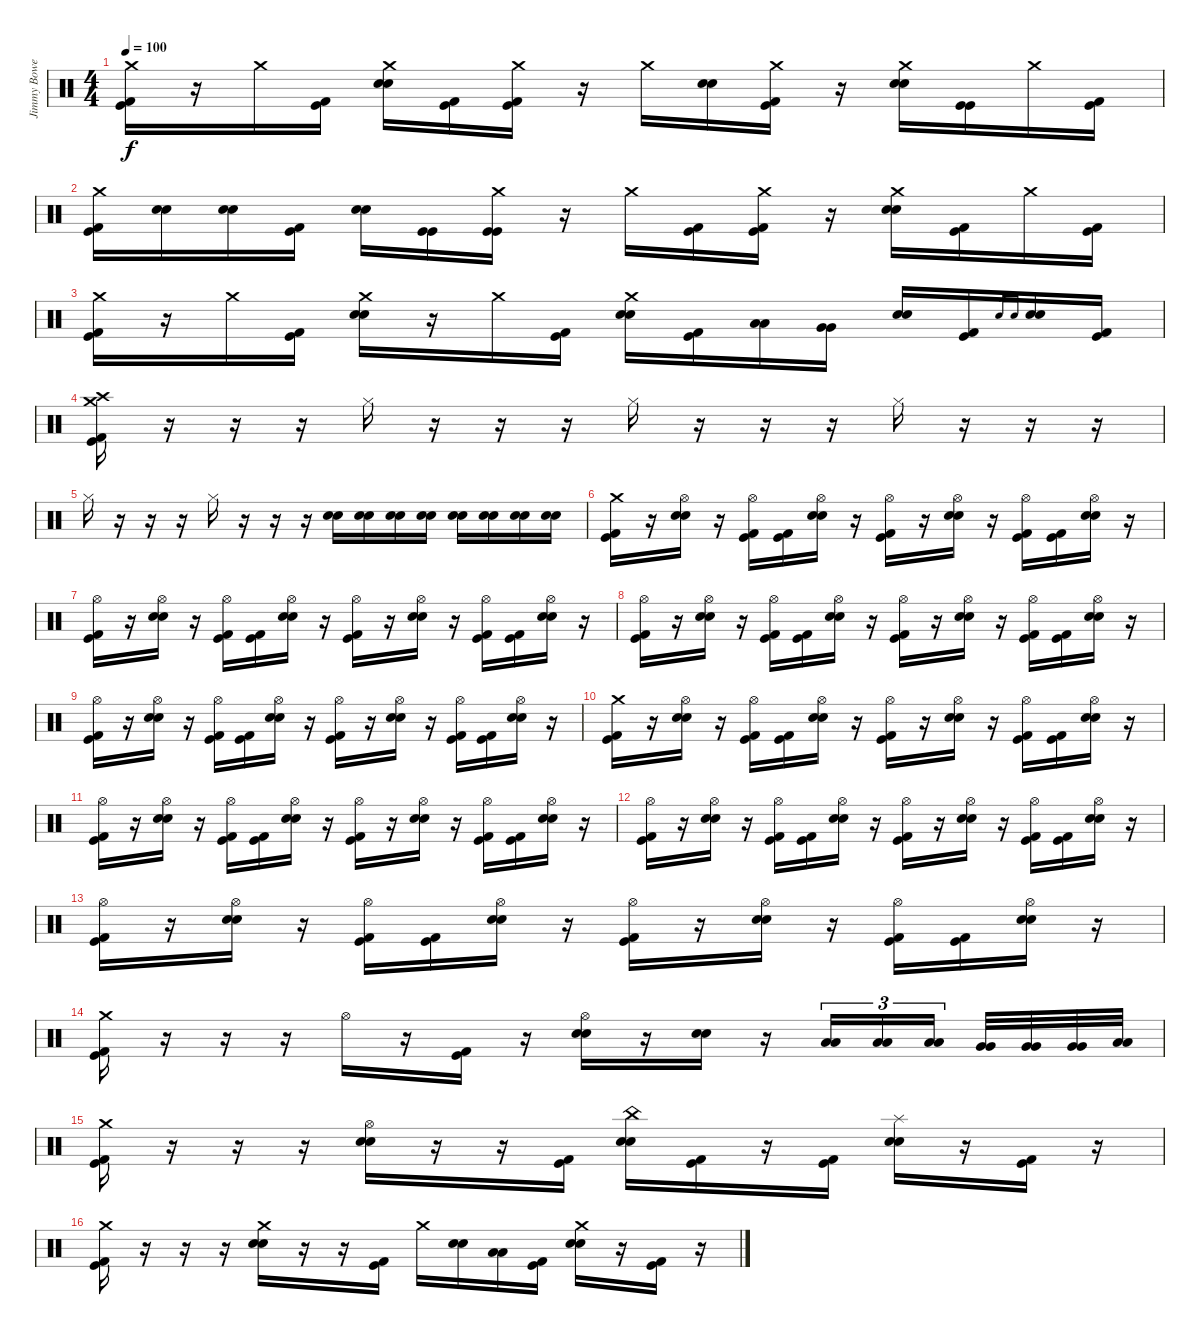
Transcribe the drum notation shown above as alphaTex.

\track ("Jimmy Bower" "Jimmy Bowe") {instrument percussion}
\staff {score}
\articulation defaults
\ts (4 4)
\tempo 100
\clef neutral
\ks c
("Crash medium (hit)" "Kick (hit) 2" "Kick (hit)").16{dy f} r.16 "Crash medium (hit)".16 ("Kick (hit) 2" "Kick (hit)").16 ("Crash medium (hit)" "Electric Snare (hit)" "Electric Snare (hit)").16 ("Kick (hit) 2" "Kick (hit)").16 ("Crash medium (hit)" "Kick (hit)" "Kick (hit) 2").16 r.16 "Crash medium (hit)".16 ("Electric Snare (hit)" "Electric Snare (hit)").16 ("Crash medium (hit)" "Kick (hit) 2" "Kick (hit)").16 r.16 ("Crash medium (hit)" "Electric Snare (hit)" "Electric Snare (hit)").16 ("Kick (hit)" "Kick (hit)").16 "Crash medium (hit)".16 ("Kick (hit) 2" "Kick (hit)").16 |
("Crash medium (hit)" "Kick (hit) 2" "Kick (hit)").16 ("Electric Snare (hit)" "Electric Snare (hit)").16 ("Electric Snare (hit)" "Electric Snare (hit)").16 ("Kick (hit) 2" "Kick (hit)").16 ("Electric Snare (hit)" "Electric Snare (hit)").16 ("Kick (hit)" "Kick (hit)").16 ("Crash medium (hit)" "Kick (hit)" "Kick (hit)").16 r.16 "Crash medium (hit)".16 ("Kick (hit) 2" "Kick (hit)").16 ("Crash medium (hit)" "Kick (hit)" "Kick (hit) 2").16 r.16 ("Crash medium (hit)" "Electric Snare (hit)" "Electric Snare (hit)").16 ("Kick (hit) 2" "Kick (hit)").16 "Crash medium (hit)".16 ("Kick (hit)" "Kick (hit) 2").16 |
("Crash medium (hit)" "Kick (hit) 2" "Kick (hit)").16 r.16 "Crash medium (hit)".16 ("Kick (hit) 2" "Kick (hit)").16 ("Crash medium (hit)" "Electric Snare (hit)" "Electric Snare (hit)").16 r.16 "Crash medium (hit)".16 ("Kick (hit) 2" "Kick (hit)").16 ("Crash medium (hit)" "Electric Snare (hit)" "Electric Snare (hit)").16 ("Kick (hit) 2" "Kick (hit)").16 ("Low Tom (hit)" "Low Tom (hit)").16 ("Very Low Tom (hit)" "Very Low Tom (hit)").16 ("Electric Snare (hit)" "Electric Snare (hit)").16 ("Kick (hit) 2" "Kick (hit)").16 "Electric Snare (hit)".16{gr} "Electric Snare (hit)".16{gr} ("Electric Snare (hit)" "Electric Snare (hit)").16 ("Kick (hit) 2" "Kick (hit)").16 |
("Crash medium (hit)" "Crash high (hit)" "Kick (hit) 2" "Kick (hit)").16 r.16 r.16 r.16 "Hi-Hat (closed)".16 r.16 r.16 r.16 "Hi-Hat (closed)".16 r.16 r.16 r.16 "Hi-Hat (closed)".16 r.16 r.16 r.16 |
"Hi-Hat (closed)".16 r.16 r.16 r.16 "Hi-Hat (closed)".16 r.16 r.16 r.16 ("Electric Snare (hit)" "Electric Snare (hit)").16 ("Electric Snare (hit)" "Electric Snare (hit)").16 ("Electric Snare (hit)" "Electric Snare (hit)").16 ("Electric Snare (hit)" "Electric Snare (hit)").16 ("Electric Snare (hit)" "Electric Snare (hit)").16 ("Electric Snare (hit)" "Electric Snare (hit)").16 ("Electric Snare (hit)" "Electric Snare (hit)").16 ("Electric Snare (hit)" "Electric Snare (hit)").16 |
("Crash medium (hit)" "Kick (hit) 2" "Kick (hit)").16 r.16 ("Hi-Hat (open)" "Electric Snare (hit)" "Electric Snare (hit)").16 r.16 ("Hi-Hat (open)" "Kick (hit) 2" "Kick (hit)").16 ("Kick (hit)" "Kick (hit) 2").16 ("Hi-Hat (open)" "Electric Snare (hit)" "Electric Snare (hit)").16 r.16 ("Hi-Hat (open)" "Kick (hit) 2" "Kick (hit)").16 r.16 ("Hi-Hat (open)" "Electric Snare (hit)" "Electric Snare (hit)").16 r.16 ("Hi-Hat (open)" "Kick (hit) 2" "Kick (hit)").16 ("Kick (hit) 2" "Kick (hit)").16 ("Hi-Hat (open)" "Electric Snare (hit)" "Electric Snare (hit)").16 r.16 |
("Hi-Hat (open)" "Kick (hit) 2" "Kick (hit)").16 r.16 ("Hi-Hat (open)" "Electric Snare (hit)" "Electric Snare (hit)").16 r.16 ("Hi-Hat (open)" "Kick (hit) 2" "Kick (hit)").16 ("Kick (hit)" "Kick (hit) 2").16 ("Hi-Hat (open)" "Electric Snare (hit)" "Electric Snare (hit)").16 r.16 ("Hi-Hat (open)" "Kick (hit) 2" "Kick (hit)").16 r.16 ("Hi-Hat (open)" "Electric Snare (hit)" "Electric Snare (hit)").16 r.16 ("Hi-Hat (open)" "Kick (hit) 2" "Kick (hit)").16 ("Kick (hit) 2" "Kick (hit)").16 ("Hi-Hat (open)" "Electric Snare (hit)" "Electric Snare (hit)").16 r.16 |
("Hi-Hat (open)" "Kick (hit) 2" "Kick (hit)").16 r.16 ("Hi-Hat (open)" "Electric Snare (hit)" "Electric Snare (hit)").16 r.16 ("Hi-Hat (open)" "Kick (hit) 2" "Kick (hit)").16 ("Kick (hit)" "Kick (hit) 2").16 ("Hi-Hat (open)" "Electric Snare (hit)" "Electric Snare (hit)").16 r.16 ("Hi-Hat (open)" "Kick (hit) 2" "Kick (hit)").16 r.16 ("Hi-Hat (open)" "Electric Snare (hit)" "Electric Snare (hit)").16 r.16 ("Hi-Hat (open)" "Kick (hit) 2" "Kick (hit)").16 ("Kick (hit) 2" "Kick (hit)").16 ("Hi-Hat (open)" "Electric Snare (hit)" "Electric Snare (hit)").16 r.16 |
("Hi-Hat (open)" "Kick (hit) 2" "Kick (hit)").16 r.16 ("Hi-Hat (open)" "Electric Snare (hit)" "Electric Snare (hit)").16 r.16 ("Hi-Hat (open)" "Kick (hit) 2" "Kick (hit)").16 ("Kick (hit)" "Kick (hit) 2").16 ("Hi-Hat (open)" "Electric Snare (hit)" "Electric Snare (hit)").16 r.16 ("Hi-Hat (open)" "Kick (hit) 2" "Kick (hit)").16 r.16 ("Hi-Hat (open)" "Electric Snare (hit)" "Electric Snare (hit)").16 r.16 ("Hi-Hat (open)" "Kick (hit) 2" "Kick (hit)").16 ("Kick (hit) 2" "Kick (hit)").16 ("Hi-Hat (open)" "Electric Snare (hit)" "Electric Snare (hit)").16 r.16 |
("Crash medium (hit)" "Kick (hit) 2" "Kick (hit)").16 r.16 ("Hi-Hat (open)" "Electric Snare (hit)" "Electric Snare (hit)").16 r.16 ("Hi-Hat (open)" "Kick (hit) 2" "Kick (hit)").16 ("Kick (hit)" "Kick (hit) 2").16 ("Hi-Hat (open)" "Electric Snare (hit)" "Electric Snare (hit)").16 r.16 ("Hi-Hat (open)" "Kick (hit) 2" "Kick (hit)").16 r.16 ("Hi-Hat (open)" "Electric Snare (hit)" "Electric Snare (hit)").16 r.16 ("Hi-Hat (open)" "Kick (hit) 2" "Kick (hit)").16 ("Kick (hit) 2" "Kick (hit)").16 ("Hi-Hat (open)" "Electric Snare (hit)" "Electric Snare (hit)").16 r.16 |
("Hi-Hat (open)" "Kick (hit) 2" "Kick (hit)").16 r.16 ("Hi-Hat (open)" "Electric Snare (hit)" "Electric Snare (hit)").16 r.16 ("Hi-Hat (open)" "Kick (hit) 2" "Kick (hit)").16 ("Kick (hit)" "Kick (hit) 2").16 ("Hi-Hat (open)" "Electric Snare (hit)" "Electric Snare (hit)").16 r.16 ("Hi-Hat (open)" "Kick (hit) 2" "Kick (hit)").16 r.16 ("Hi-Hat (open)" "Electric Snare (hit)" "Electric Snare (hit)").16 r.16 ("Hi-Hat (open)" "Kick (hit) 2" "Kick (hit)").16 ("Kick (hit) 2" "Kick (hit)").16 ("Hi-Hat (open)" "Electric Snare (hit)" "Electric Snare (hit)").16 r.16 |
("Hi-Hat (open)" "Kick (hit) 2" "Kick (hit)").16 r.16 ("Hi-Hat (open)" "Electric Snare (hit)" "Electric Snare (hit)").16 r.16 ("Hi-Hat (open)" "Kick (hit) 2" "Kick (hit)").16 ("Kick (hit)" "Kick (hit) 2").16 ("Hi-Hat (open)" "Electric Snare (hit)" "Electric Snare (hit)").16 r.16 ("Hi-Hat (open)" "Kick (hit) 2" "Kick (hit)").16 r.16 ("Hi-Hat (open)" "Electric Snare (hit)" "Electric Snare (hit)").16 r.16 ("Hi-Hat (open)" "Kick (hit) 2" "Kick (hit)").16 ("Kick (hit) 2" "Kick (hit)").16 ("Hi-Hat (open)" "Electric Snare (hit)" "Electric Snare (hit)").16 r.16 |
("Hi-Hat (open)" "Kick (hit) 2" "Kick (hit)").16 r.16 ("Hi-Hat (open)" "Electric Snare (hit)" "Electric Snare (hit)").16 r.16 ("Hi-Hat (open)" "Kick (hit) 2" "Kick (hit)").16 ("Kick (hit)" "Kick (hit) 2").16 ("Hi-Hat (open)" "Electric Snare (hit)" "Electric Snare (hit)").16 r.16 ("Hi-Hat (open)" "Kick (hit) 2" "Kick (hit)").16 r.16 ("Hi-Hat (open)" "Electric Snare (hit)" "Electric Snare (hit)").16 r.16 ("Hi-Hat (open)" "Kick (hit) 2" "Kick (hit)").16 ("Kick (hit) 2" "Kick (hit)").16 ("Hi-Hat (open)" "Electric Snare (hit)" "Electric Snare (hit)").16 r.16 |
("Crash medium (hit)" "Kick (hit) 2" "Kick (hit)").16 r.16 r.16 r.16 "Hi-Hat (open)".16 r.16 ("Kick (hit)" "Kick (hit) 2").16 r.16 ("Hi-Hat (open)" "Electric Snare (hit)" "Electric Snare (hit)").16 r.16 ("Electric Snare (hit)" "Electric Snare (hit)").16 r.16 ("Low Tom (hit)" "Low Tom (hit)").16{tu (3 2)} ("Low Tom (hit)" "Low Tom (hit)").16{tu (3 2)} ("Low Tom (hit)" "Low Tom (hit)").16{tu (3 2) beam splitsecondary} ("Very Low Tom (hit)" "Very Low Tom (hit)").32 ("Very Low Tom (hit)" "Very Low Tom (hit)").32 ("Very Low Tom (hit)" "Very Low Tom (hit)").32 ("Low Floor Tom (hit)" "Low Floor Tom (hit)").32 |
("Crash medium (hit)" "Kick (hit) 2" "Kick (hit)").16 r.16 r.16 r.16 ("Hi-Hat (open)" "Electric Snare (hit)" "Electric Snare (hit)").16 r.16 r.16 ("Kick (hit) 2" "Kick (hit)").16 ("China (hit)" "Electric Snare (hit)" "Electric Snare (hit)").16 ("Kick (hit) 2" "Kick (hit)").16 r.16 ("Kick (hit) 2" "Kick (hit)").16 ("Splash (hit)" "Electric Snare (hit)" "Electric Snare (hit)").16 r.16 ("Kick (hit) 2" "Kick (hit)").16 r.16 |
("Crash medium (hit)" "Kick (hit) 2" "Kick (hit)").16 r.16 r.16 r.16 ("Crash medium (hit)" "Electric Snare (hit)" "Electric Snare (hit)").16 r.16 r.16 ("Kick (hit) 2" "Kick (hit)").16 "Crash medium (hit)".16 ("Electric Snare (hit)" "Electric Snare (hit)").16 ("Low Tom (hit)" "Low Tom (hit)").16 ("Kick (hit) 2" "Kick (hit)").16 ("Crash medium (hit)" "Electric Snare (hit)" "Electric Snare (hit)").16 r.16 ("Kick (hit) 2" "Kick (hit)").16 r.16
